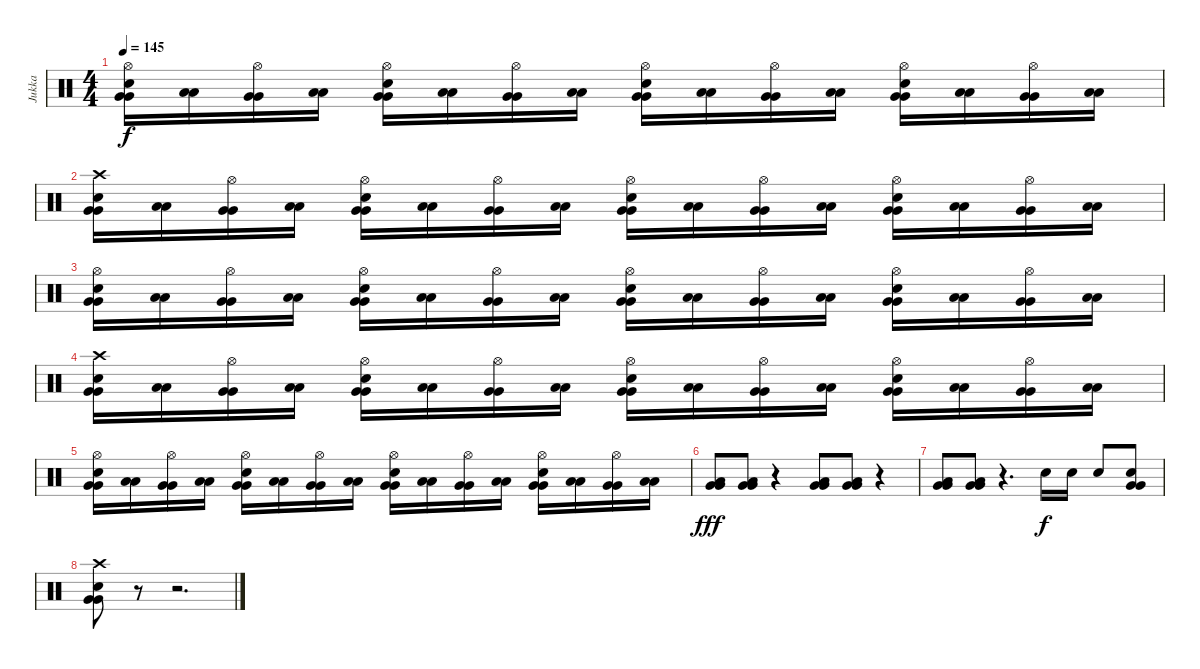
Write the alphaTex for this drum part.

\track ("Jukka" "Jukka") {instrument percussion}
\staff {score}
\articulation defaults
\ts (4 4)
\tempo 145
\clef neutral
\ks c
("Hi-Hat (open)" "Electric Snare (hit)" "Very Low Tom (hit)" "Very Low Tom (hit)").16{dy f} ("Low Floor Tom (hit)" "Low Floor Tom (hit)").16 ("Hi-Hat (open)" "Very Low Tom (hit)" "Very Low Tom (hit)").16 ("Low Floor Tom (hit)" "Low Floor Tom (hit)").16 ("Hi-Hat (open)" "Electric Snare (hit)" "Very Low Tom (hit)" "Very Low Tom (hit)").16 ("Low Floor Tom (hit)" "Low Floor Tom (hit)").16 ("Hi-Hat (open)" "Very Low Tom (hit)" "Very Low Tom (hit)").16 ("Low Floor Tom (hit)" "Low Floor Tom (hit)").16 ("Hi-Hat (open)" "Electric Snare (hit)" "Very Low Tom (hit)" "Very Low Tom (hit)").16 ("Low Floor Tom (hit)" "Low Floor Tom (hit)").16 ("Hi-Hat (open)" "Very Low Tom (hit)" "Very Low Tom (hit)").16 ("Low Floor Tom (hit)" "Low Floor Tom (hit)").16 ("Hi-Hat (open)" "Electric Snare (hit)" "Very Low Tom (hit)" "Very Low Tom (hit)").16 ("Low Floor Tom (hit)" "Low Floor Tom (hit)").16 ("Hi-Hat (open)" "Very Low Tom (hit)" "Very Low Tom (hit)").16 ("Low Floor Tom (hit)" "Low Floor Tom (hit)").16 |
("Crash high (hit)" "Electric Snare (hit)" "Very Low Tom (hit)" "Very Low Tom (hit)").16 ("Low Floor Tom (hit)" "Low Floor Tom (hit)").16 ("Hi-Hat (open)" "Very Low Tom (hit)" "Very Low Tom (hit)").16 ("Low Floor Tom (hit)" "Low Floor Tom (hit)").16 ("Hi-Hat (open)" "Electric Snare (hit)" "Very Low Tom (hit)" "Very Low Tom (hit)").16 ("Low Floor Tom (hit)" "Low Floor Tom (hit)").16 ("Hi-Hat (open)" "Very Low Tom (hit)" "Very Low Tom (hit)").16 ("Low Floor Tom (hit)" "Low Floor Tom (hit)").16 ("Hi-Hat (open)" "Electric Snare (hit)" "Very Low Tom (hit)" "Very Low Tom (hit)").16 ("Low Floor Tom (hit)" "Low Floor Tom (hit)").16 ("Hi-Hat (open)" "Very Low Tom (hit)" "Very Low Tom (hit)").16 ("Low Floor Tom (hit)" "Low Floor Tom (hit)").16 ("Hi-Hat (open)" "Electric Snare (hit)" "Very Low Tom (hit)" "Very Low Tom (hit)").16 ("Low Floor Tom (hit)" "Low Floor Tom (hit)").16 ("Hi-Hat (open)" "Very Low Tom (hit)" "Very Low Tom (hit)").16 ("Low Floor Tom (hit)" "Low Floor Tom (hit)").16 |
("Hi-Hat (open)" "Electric Snare (hit)" "Very Low Tom (hit)" "Very Low Tom (hit)").16 ("Low Floor Tom (hit)" "Low Floor Tom (hit)").16 ("Hi-Hat (open)" "Very Low Tom (hit)" "Very Low Tom (hit)").16 ("Low Floor Tom (hit)" "Low Floor Tom (hit)").16 ("Hi-Hat (open)" "Electric Snare (hit)" "Very Low Tom (hit)" "Very Low Tom (hit)").16 ("Low Floor Tom (hit)" "Low Floor Tom (hit)").16 ("Hi-Hat (open)" "Very Low Tom (hit)" "Very Low Tom (hit)").16 ("Low Floor Tom (hit)" "Low Floor Tom (hit)").16 ("Hi-Hat (open)" "Electric Snare (hit)" "Very Low Tom (hit)" "Very Low Tom (hit)").16 ("Low Floor Tom (hit)" "Low Floor Tom (hit)").16 ("Hi-Hat (open)" "Very Low Tom (hit)" "Very Low Tom (hit)").16 ("Low Floor Tom (hit)" "Low Floor Tom (hit)").16 ("Hi-Hat (open)" "Electric Snare (hit)" "Very Low Tom (hit)" "Very Low Tom (hit)").16 ("Low Floor Tom (hit)" "Low Floor Tom (hit)").16 ("Hi-Hat (open)" "Very Low Tom (hit)" "Very Low Tom (hit)").16 ("Low Floor Tom (hit)" "Low Floor Tom (hit)").16 |
("Crash high (hit)" "Electric Snare (hit)" "Very Low Tom (hit)" "Very Low Tom (hit)").16 ("Low Floor Tom (hit)" "Low Floor Tom (hit)").16 ("Hi-Hat (open)" "Very Low Tom (hit)" "Very Low Tom (hit)").16 ("Low Floor Tom (hit)" "Low Floor Tom (hit)").16 ("Hi-Hat (open)" "Electric Snare (hit)" "Very Low Tom (hit)" "Very Low Tom (hit)").16 ("Low Floor Tom (hit)" "Low Floor Tom (hit)").16 ("Hi-Hat (open)" "Very Low Tom (hit)" "Very Low Tom (hit)").16 ("Low Floor Tom (hit)" "Low Floor Tom (hit)").16 ("Hi-Hat (open)" "Electric Snare (hit)" "Very Low Tom (hit)" "Very Low Tom (hit)").16 ("Low Floor Tom (hit)" "Low Floor Tom (hit)").16 ("Hi-Hat (open)" "Very Low Tom (hit)" "Very Low Tom (hit)").16 ("Low Floor Tom (hit)" "Low Floor Tom (hit)").16 ("Hi-Hat (open)" "Electric Snare (hit)" "Very Low Tom (hit)" "Very Low Tom (hit)").16 ("Low Floor Tom (hit)" "Low Floor Tom (hit)").16 ("Hi-Hat (open)" "Very Low Tom (hit)" "Very Low Tom (hit)").16 ("Low Floor Tom (hit)" "Low Floor Tom (hit)").16 |
("Hi-Hat (open)" "Electric Snare (hit)" "Very Low Tom (hit)" "Very Low Tom (hit)").16 ("Low Floor Tom (hit)" "Low Floor Tom (hit)").16 ("Hi-Hat (open)" "Very Low Tom (hit)" "Very Low Tom (hit)").16 ("Low Floor Tom (hit)" "Low Floor Tom (hit)").16 ("Hi-Hat (open)" "Electric Snare (hit)" "Very Low Tom (hit)" "Very Low Tom (hit)").16 ("Low Floor Tom (hit)" "Low Floor Tom (hit)").16 ("Hi-Hat (open)" "Very Low Tom (hit)" "Very Low Tom (hit)").16 ("Low Floor Tom (hit)" "Low Floor Tom (hit)").16 ("Hi-Hat (open)" "Electric Snare (hit)" "Very Low Tom (hit)" "Very Low Tom (hit)").16 ("Low Floor Tom (hit)" "Low Floor Tom (hit)").16 ("Hi-Hat (open)" "Very Low Tom (hit)" "Very Low Tom (hit)").16 ("Low Floor Tom (hit)" "Low Floor Tom (hit)").16 ("Hi-Hat (open)" "Electric Snare (hit)" "Very Low Tom (hit)" "Very Low Tom (hit)").16 ("Low Floor Tom (hit)" "Low Floor Tom (hit)").16 ("Hi-Hat (open)" "Very Low Tom (hit)" "Very Low Tom (hit)").16 ("Low Floor Tom (hit)" "Low Floor Tom (hit)").16 |
("Low Tom (hit)" "Very Low Tom (hit)" "Very Low Tom (hit)").8{dy fff} ("Low Tom (hit)" "Very Low Tom (hit)" "Very Low Tom (hit)").8 r.4 ("Low Tom (hit)" "Very Low Tom (hit)" "Very Low Tom (hit)").8 ("Low Tom (hit)" "Very Low Tom (hit)" "Very Low Tom (hit)").8 r.4 |
("Low Tom (hit)" "Very Low Tom (hit)" "Very Low Tom (hit)").8 ("Low Tom (hit)" "Very Low Tom (hit)" "Very Low Tom (hit)").8 r.4{d} "Electric Snare (hit)".16{dy f} "Electric Snare (hit)".16 "Electric Snare (hit)".8 ("Electric Snare (hit)" "Very Low Tom (hit)" "Very Low Tom (hit)").8 |
("Crash high (hit)" "Electric Snare (hit)" "Very Low Tom (hit)" "Very Low Tom (hit)").8 r.8 r.2{d}
